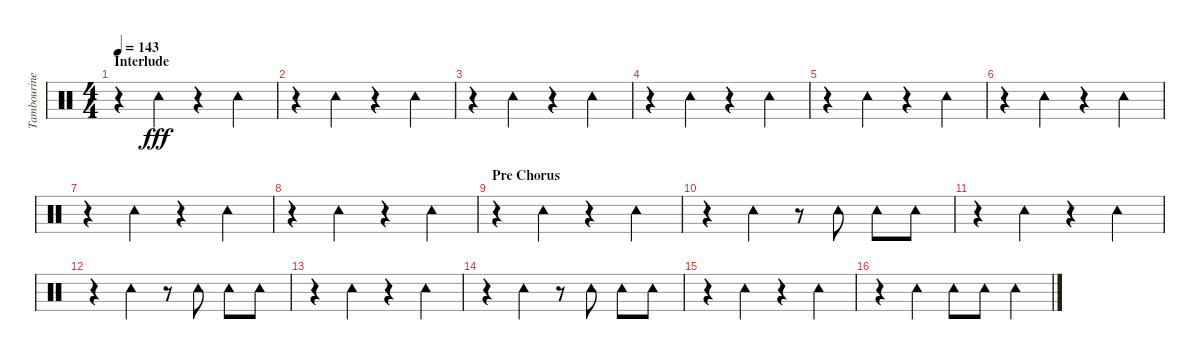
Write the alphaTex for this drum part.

\track ("Tambourine" "Tambourine") {instrument percussion}
\staff {score}
\articulation defaults
\ts (4 4)
\section ("" "Interlude")
\tempo 143
\clef neutral
\ks c
r.4{dy fff} "Tambourine (hit)".4 r.4 "Tambourine (hit)".4 |
r.4 "Tambourine (hit)".4 r.4 "Tambourine (hit)".4 |
r.4 "Tambourine (hit)".4 r.4 "Tambourine (hit)".4 |
r.4 "Tambourine (hit)".4 r.4 "Tambourine (hit)".4 |
r.4 "Tambourine (hit)".4 r.4 "Tambourine (hit)".4 |
r.4 "Tambourine (hit)".4 r.4 "Tambourine (hit)".4 |
r.4 "Tambourine (hit)".4 r.4 "Tambourine (hit)".4 |
r.4 "Tambourine (hit)".4 r.4 "Tambourine (hit)".4 |
\section ("" "Pre Chorus")
r.4 "Tambourine (hit)".4 r.4 "Tambourine (hit)".4 |
r.4 "Tambourine (hit)".4 r.8 "Tambourine (hit)".8 "Tambourine (hit)".8 "Tambourine (hit)".8 |
r.4 "Tambourine (hit)".4 r.4 "Tambourine (hit)".4 |
r.4 "Tambourine (hit)".4 r.8 "Tambourine (hit)".8 "Tambourine (hit)".8 "Tambourine (hit)".8 |
r.4 "Tambourine (hit)".4 r.4 "Tambourine (hit)".4 |
r.4 "Tambourine (hit)".4 r.8 "Tambourine (hit)".8 "Tambourine (hit)".8 "Tambourine (hit)".8 |
r.4 "Tambourine (hit)".4 r.4 "Tambourine (hit)".4 |
r.4 "Tambourine (hit)".4 "Tambourine (hit)".8 "Tambourine (hit)".8 "Tambourine (hit)".4
